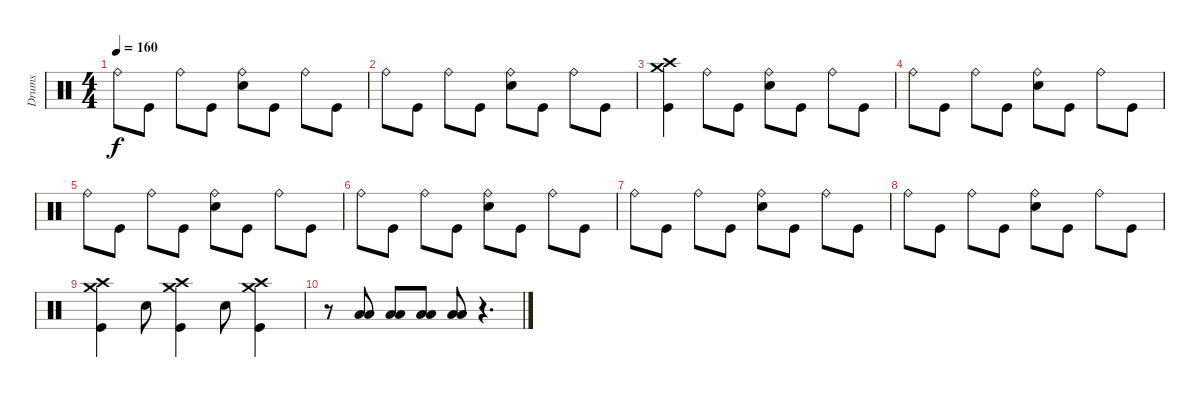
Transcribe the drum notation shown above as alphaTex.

\track ("Drums" "Drums") {instrument percussion}
\staff {score}
\articulation defaults
\ts (4 4)
\tempo 160
\clef neutral
\ks c "Ride (bell)".8{dy f} "Kick (hit)".8 "Ride (bell)".8 "Kick (hit)".8
("Electric Snare (hit)" "Ride (bell)").8 "Kick (hit)".8 "Ride (bell)".8 "Kick (hit)".8 |
"Ride (bell)".8 "Kick (hit)".8 "Ride (bell)".8 "Kick (hit)".8 ("Electric Snare (hit)" "Ride (bell)").8 "Kick (hit)".8 "Ride (bell)".8 "Kick (hit)".8 |
("Kick (hit)" "Crash medium (hit)" "Crash high (hit)").4 "Ride (bell)".8 "Kick (hit)".8 ("Electric Snare (hit)" "Ride (bell)").8 "Kick (hit)".8 "Ride (bell)".8 "Kick (hit)".8 |
"Ride (bell)".8 "Kick (hit)".8 "Ride (bell)".8 "Kick (hit)".8 ("Electric Snare (hit)" "Ride (bell)").8 "Kick (hit)".8 "Ride (bell)".8 "Kick (hit)".8 |
"Ride (bell)".8 "Kick (hit)".8 "Ride (bell)".8 "Kick (hit)".8 ("Electric Snare (hit)" "Ride (bell)").8 "Kick (hit)".8 "Ride (bell)".8 "Kick (hit)".8 |
"Ride (bell)".8 "Kick (hit)".8 "Ride (bell)".8 "Kick (hit)".8 ("Electric Snare (hit)" "Ride (bell)").8 "Kick (hit)".8 "Ride (bell)".8 "Kick (hit)".8 |
"Ride (bell)".8 "Kick (hit)".8 "Ride (bell)".8 "Kick (hit)".8 ("Electric Snare (hit)" "Ride (bell)").8 "Kick (hit)".8 "Ride (bell)".8 "Kick (hit)".8 |
"Ride (bell)".8 "Kick (hit)".8 "Ride (bell)".8 "Kick (hit)".8 ("Electric Snare (hit)" "Ride (bell)").8 "Kick (hit)".8 "Ride (bell)".8 "Kick (hit)".8 |
("Kick (hit)" "Crash medium (hit)" "Crash high (hit)").4 "Electric Snare (hit)".8 ("Kick (hit)" "Crash medium (hit)" "Crash high (hit)").4 "Electric Snare (hit)".8 ("Kick (hit)" "Crash medium (hit)" "Crash high (hit)").4 |
r.8 ("Low Floor Tom (hit)" "Low Tom (hit)").8 ("Low Floor Tom (hit)" "Low Tom (hit)").8 ("Low Floor Tom (hit)" "Low Tom (hit)").8 ("Low Floor Tom (hit)" "Low Tom (hit)").8 r.4{d}
